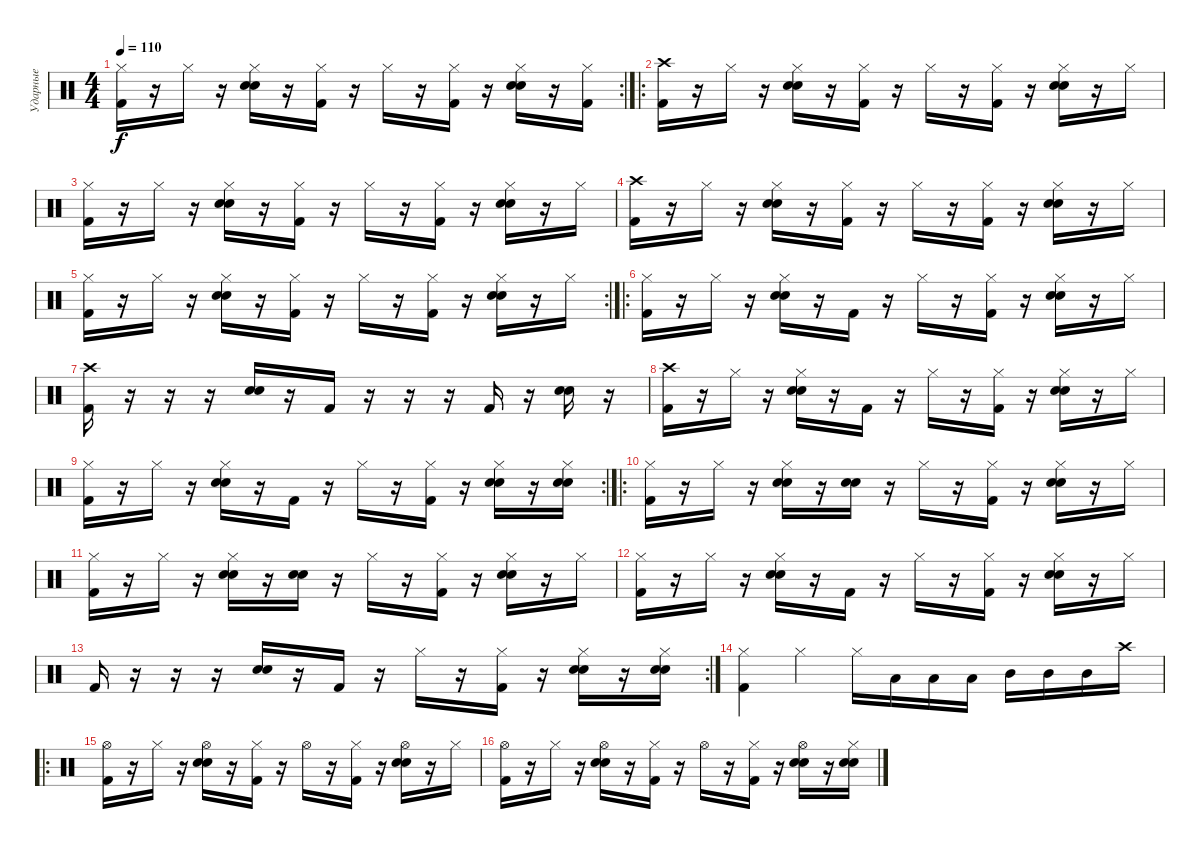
\track ("Ударные" "Ударные") {instrument percussion}
\staff {score}
\articulation defaults
\rc 2
\ts (4 4)
\tempo 110
\clef neutral
\ks c
("Hi-Hat (closed)" "Kick (hit) 2").16{dy f} r.16 "Hi-Hat (closed)".16 r.16 ("Hi-Hat (closed)" "Electric Snare (hit)" "Snare (hit) 2").16 r.16 ("Hi-Hat (closed)" "Kick (hit) 2").16 r.16 "Hi-Hat (closed)".16 r.16 ("Hi-Hat (closed)" "Kick (hit) 2").16 r.16 ("Hi-Hat (closed)" "Electric Snare (hit)" "Snare (hit) 2").16 r.16 ("Hi-Hat (closed)" "Kick (hit) 2").16 |
\ro
("Crash high (hit)" "Kick (hit) 2").16 r.16 "Hi-Hat (closed)".16 r.16 ("Hi-Hat (closed)" "Electric Snare (hit)" "Snare (hit) 2").16 r.16 ("Hi-Hat (closed)" "Kick (hit) 2").16 r.16 "Hi-Hat (closed)".16 r.16 ("Hi-Hat (closed)" "Kick (hit) 2").16 r.16 ("Hi-Hat (closed)" "Electric Snare (hit)" "Snare (hit) 2").16 r.16 "Hi-Hat (closed)".16 |
("Hi-Hat (closed)" "Kick (hit) 2").16 r.16 "Hi-Hat (closed)".16 r.16 ("Hi-Hat (closed)" "Electric Snare (hit)" "Snare (hit) 2").16 r.16 ("Hi-Hat (closed)" "Kick (hit) 2").16 r.16 "Hi-Hat (closed)".16 r.16 ("Hi-Hat (closed)" "Kick (hit) 2").16 r.16 ("Hi-Hat (closed)" "Electric Snare (hit)" "Snare (hit) 2").16 r.16 "Hi-Hat (closed)".16 |
("Crash high (hit)" "Kick (hit) 2").16 r.16 "Hi-Hat (closed)".16 r.16 ("Hi-Hat (closed)" "Electric Snare (hit)" "Snare (hit) 2").16 r.16 ("Hi-Hat (closed)" "Kick (hit) 2").16 r.16 "Hi-Hat (closed)".16 r.16 ("Hi-Hat (closed)" "Kick (hit) 2").16 r.16 ("Hi-Hat (closed)" "Electric Snare (hit)" "Snare (hit) 2").16 r.16 "Hi-Hat (closed)".16 |
\rc 2
("Hi-Hat (closed)" "Kick (hit) 2").16 r.16 "Hi-Hat (closed)".16 r.16 ("Hi-Hat (closed)" "Electric Snare (hit)" "Snare (hit) 2").16 r.16 ("Hi-Hat (closed)" "Kick (hit) 2").16 r.16 "Hi-Hat (closed)".16 r.16 ("Hi-Hat (closed)" "Kick (hit) 2").16 r.16 ("Hi-Hat (closed)" "Electric Snare (hit)" "Snare (hit) 2").16 r.16 "Hi-Hat (closed)".16 |
\ro
("Hi-Hat (closed)" "Kick (hit) 2").16 r.16 "Hi-Hat (closed)".16 r.16 ("Hi-Hat (closed)" "Electric Snare (hit)" "Snare (hit) 2").16 r.16 "Kick (hit) 2".16 r.16 "Hi-Hat (closed)".16 r.16 ("Hi-Hat (closed)" "Kick (hit) 2").16 r.16 ("Hi-Hat (closed)" "Electric Snare (hit)" "Snare (hit) 2").16 r.16 "Hi-Hat (closed)".16 |
("Crash high (hit)" "Kick (hit) 2").16 r.16 r.16 r.16 ("Electric Snare (hit)" "Snare (hit) 2").16 r.16 "Kick (hit) 2".16 r.16 r.16 r.16 "Kick (hit) 2".16 r.16 ("Electric Snare (hit)" "Snare (hit) 2").16 r.16 |
("Crash high (hit)" "Kick (hit) 2").16 r.16 "Hi-Hat (closed)".16 r.16 ("Hi-Hat (closed)" "Electric Snare (hit)" "Snare (hit) 2").16 r.16 "Kick (hit) 2".16 r.16 "Hi-Hat (closed)".16 r.16 ("Hi-Hat (closed)" "Kick (hit) 2").16 r.16 ("Hi-Hat (closed)" "Electric Snare (hit)" "Snare (hit) 2").16 r.16 "Hi-Hat (closed)".16 |
\rc 2
("Hi-Hat (closed)" "Kick (hit) 2").16 r.16 "Hi-Hat (closed)".16 r.16 ("Hi-Hat (closed)" "Electric Snare (hit)" "Snare (hit) 2").16 r.16 "Kick (hit) 2".16 r.16 "Hi-Hat (closed)".16 r.16 ("Hi-Hat (closed)" "Kick (hit) 2").16 r.16 ("Hi-Hat (closed)" "Electric Snare (hit)" "Snare (hit) 2").16 r.16 ("Hi-Hat (closed)" "Electric Snare (hit)" "Snare (hit) 2").16 |
\ro
("Hi-Hat (closed)" "Kick (hit) 2").16 r.16 "Hi-Hat (closed)".16 r.16 ("Hi-Hat (closed)" "Electric Snare (hit)" "Snare (hit) 2").16 r.16 ("Electric Snare (hit)" "Snare (hit) 2").16 r.16 "Hi-Hat (closed)".16 r.16 ("Hi-Hat (closed)" "Kick (hit) 2").16 r.16 ("Hi-Hat (closed)" "Electric Snare (hit)" "Snare (hit) 2").16 r.16 "Hi-Hat (closed)".16 |
("Hi-Hat (closed)" "Kick (hit) 2").16 r.16 "Hi-Hat (closed)".16 r.16 ("Hi-Hat (closed)" "Electric Snare (hit)" "Snare (hit) 2").16 r.16 ("Electric Snare (hit)" "Snare (hit) 2").16 r.16 "Hi-Hat (closed)".16 r.16 ("Hi-Hat (closed)" "Kick (hit) 2").16 r.16 ("Hi-Hat (closed)" "Electric Snare (hit)" "Snare (hit) 2").16 r.16 "Hi-Hat (closed)".16 |
("Hi-Hat (closed)" "Kick (hit) 2").16 r.16 "Hi-Hat (closed)".16 r.16 ("Hi-Hat (closed)" "Electric Snare (hit)" "Snare (hit) 2").16 r.16 "Kick (hit) 2".16 r.16 "Hi-Hat (closed)".16 r.16 ("Hi-Hat (closed)" "Kick (hit) 2").16 r.16 ("Hi-Hat (closed)" "Electric Snare (hit)" "Snare (hit) 2").16 r.16 "Hi-Hat (closed)".16 |
\rc 2 "Kick (hit) 2".16
r.16 r.16 r.16 ("Electric Snare (hit)" "Snare (hit) 2").16 r.16 "Kick (hit) 2".16 r.16 "Hi-Hat (closed)".16 r.16 ("Hi-Hat (closed)" "Kick (hit) 2").16 r.16 ("Hi-Hat (closed)" "Electric Snare (hit)" "Snare (hit) 2").16 r.16 ("Hi-Hat (closed)" "Electric Snare (hit)" "Snare (hit) 2").16 |
("Hi-Hat (closed)" "Kick (hit) 2").4 "Hi-Hat (closed)".4 "Hi-Hat (closed)".16 "Low Tom (hit)".16 "Low Tom (hit)".16 "Low Tom (hit)".16 "Mid Tom (hit)".16 "Mid Tom (hit)".16 "Mid Tom (hit)".16 "Crash high (hit)".16 |
\ro
("Hi-Hat (open)" "Kick (hit) 2").16 r.16 "Hi-Hat (closed)".16 r.16 ("Hi-Hat (open)" "Electric Snare (hit)" "Snare (hit) 2").16 r.16 ("Hi-Hat (closed)" "Kick (hit) 2").16 r.16 "Hi-Hat (open)".16 r.16 ("Hi-Hat (closed)" "Kick (hit) 2").16 r.16 ("Hi-Hat (open)" "Electric Snare (hit)" "Snare (hit) 2").16 r.16 "Hi-Hat (closed)".16 |
("Hi-Hat (open)" "Kick (hit) 2").16 r.16 "Hi-Hat (closed)".16 r.16 ("Hi-Hat (open)" "Electric Snare (hit)" "Snare (hit) 2").16 r.16 ("Hi-Hat (closed)" "Kick (hit) 2").16 r.16 "Hi-Hat (open)".16 r.16 ("Hi-Hat (closed)" "Kick (hit) 2").16 r.16 ("Hi-Hat (open)" "Electric Snare (hit)" "Snare (hit) 2").16 r.16 ("Hi-Hat (closed)" "Electric Snare (hit)" "Snare (hit) 2").16
